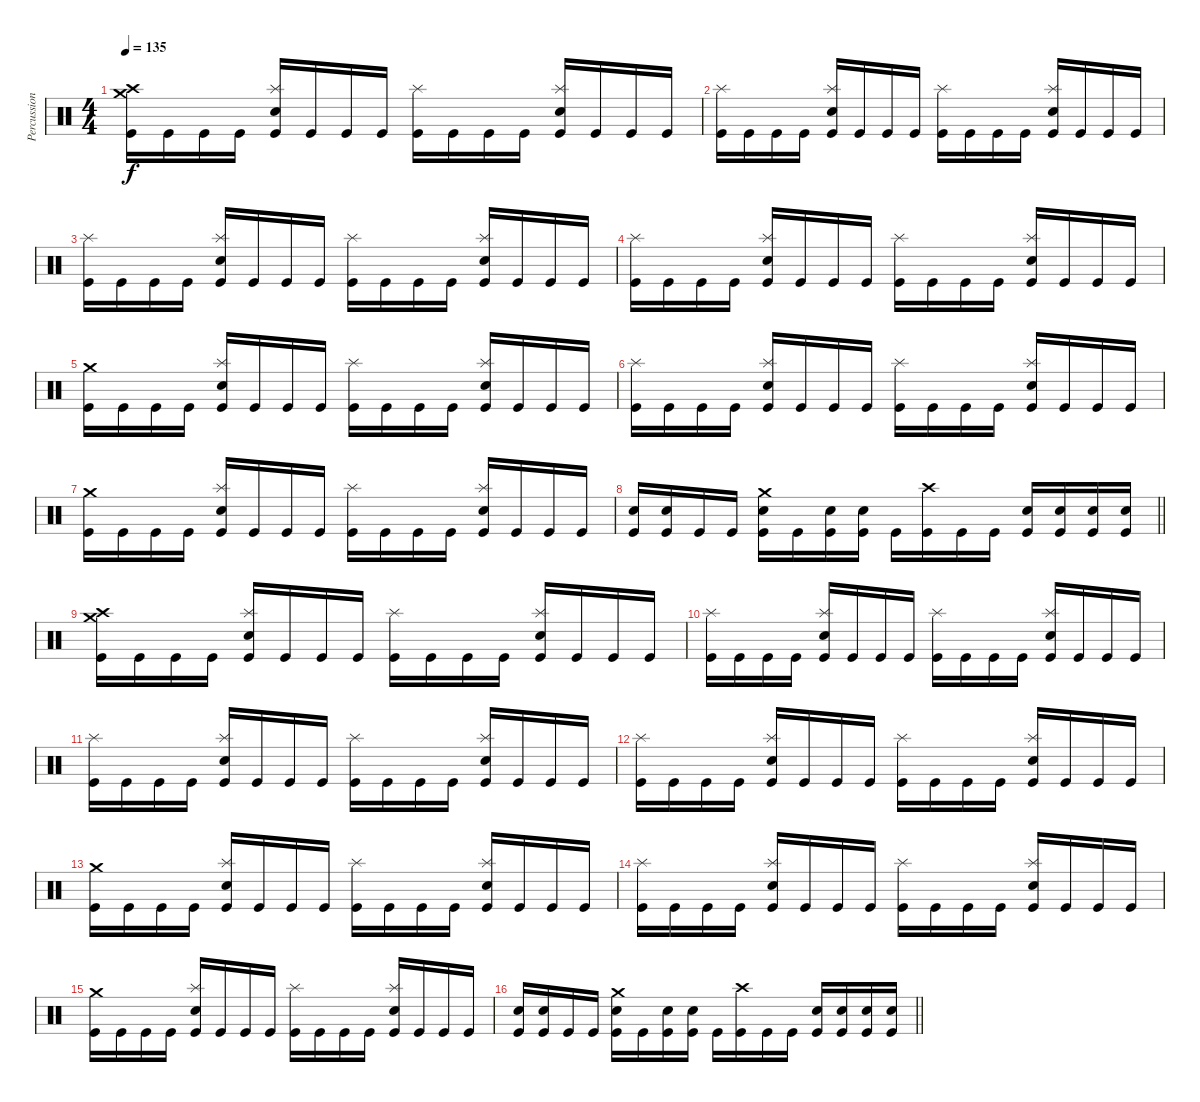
\track ("Percussion" "Percussion") {instrument percussion}
\staff {score}
\articulation defaults
\ts (4 4)
\tempo 135
\clef neutral
\ks c
("Crash medium (hit)" "Crash high (hit)" "Kick (hit)").16{dy f} "Kick (hit)".16 "Kick (hit)".16 "Kick (hit)".16 ("Splash (hit)" "Electric Snare (hit)" "Kick (hit)").16 "Kick (hit)".16 "Kick (hit)".16 "Kick (hit)".16 ("Splash (hit)" "Kick (hit)").16 "Kick (hit)".16 "Kick (hit)".16 "Kick (hit)".16 ("Splash (hit)" "Electric Snare (hit)" "Kick (hit)").16 "Kick (hit)".16 "Kick (hit)".16 "Kick (hit)".16 |
("Splash (hit)" "Kick (hit)").16 "Kick (hit)".16 "Kick (hit)".16 "Kick (hit)".16 ("Splash (hit)" "Electric Snare (hit)" "Kick (hit)").16 "Kick (hit)".16 "Kick (hit)".16 "Kick (hit)".16 ("Splash (hit)" "Kick (hit)").16 "Kick (hit)".16 "Kick (hit)".16 "Kick (hit)".16 ("Splash (hit)" "Electric Snare (hit)" "Kick (hit)").16 "Kick (hit)".16 "Kick (hit)".16 "Kick (hit)".16 |
("Splash (hit)" "Kick (hit)").16 "Kick (hit)".16 "Kick (hit)".16 "Kick (hit)".16 ("Splash (hit)" "Electric Snare (hit)" "Kick (hit)").16 "Kick (hit)".16 "Kick (hit)".16 "Kick (hit)".16 ("Splash (hit)" "Kick (hit)").16 "Kick (hit)".16 "Kick (hit)".16 "Kick (hit)".16 ("Splash (hit)" "Electric Snare (hit)" "Kick (hit)").16 "Kick (hit)".16 "Kick (hit)".16 "Kick (hit)".16 |
("Splash (hit)" "Kick (hit)").16 "Kick (hit)".16 "Kick (hit)".16 "Kick (hit)".16 ("Splash (hit)" "Electric Snare (hit)" "Kick (hit)").16 "Kick (hit)".16 "Kick (hit)".16 "Kick (hit)".16 ("Splash (hit)" "Kick (hit)").16 "Kick (hit)".16 "Kick (hit)".16 "Kick (hit)".16 ("Splash (hit)" "Electric Snare (hit)" "Kick (hit)").16 "Kick (hit)".16 "Kick (hit)".16 "Kick (hit)".16 |
("Crash medium (hit)" "Kick (hit)").16 "Kick (hit)".16 "Kick (hit)".16 "Kick (hit)".16 ("Splash (hit)" "Electric Snare (hit)" "Kick (hit)").16 "Kick (hit)".16 "Kick (hit)".16 "Kick (hit)".16 ("Splash (hit)" "Kick (hit)").16 "Kick (hit)".16 "Kick (hit)".16 "Kick (hit)".16 ("Splash (hit)" "Electric Snare (hit)" "Kick (hit)").16 "Kick (hit)".16 "Kick (hit)".16 "Kick (hit)".16 |
("Splash (hit)" "Kick (hit)").16 "Kick (hit)".16 "Kick (hit)".16 "Kick (hit)".16 ("Splash (hit)" "Electric Snare (hit)" "Kick (hit)").16 "Kick (hit)".16 "Kick (hit)".16 "Kick (hit)".16 ("Splash (hit)" "Kick (hit)").16 "Kick (hit)".16 "Kick (hit)".16 "Kick (hit)".16 ("Splash (hit)" "Electric Snare (hit)" "Kick (hit)").16 "Kick (hit)".16 "Kick (hit)".16 "Kick (hit)".16 |
("Crash medium (hit)" "Kick (hit)").16 "Kick (hit)".16 "Kick (hit)".16 "Kick (hit)".16 ("Splash (hit)" "Electric Snare (hit)" "Kick (hit)").16 "Kick (hit)".16 "Kick (hit)".16 "Kick (hit)".16 ("Splash (hit)" "Kick (hit)").16 "Kick (hit)".16 "Kick (hit)".16 "Kick (hit)".16 ("Splash (hit)" "Electric Snare (hit)" "Kick (hit)").16 "Kick (hit)".16 "Kick (hit)".16 "Kick (hit)".16 |
\barLineRight lightlight
("Electric Snare (hit)" "Kick (hit)").16 ("Electric Snare (hit)" "Kick (hit)").16 "Kick (hit)".16 "Kick (hit)".16 ("Crash medium (hit)" "Electric Snare (hit)" "Kick (hit)").16 "Kick (hit)".16 ("Electric Snare (hit)" "Kick (hit)").16 ("Electric Snare (hit)" "Kick (hit)").16 "Kick (hit)".16 ("Crash high (hit)" "Kick (hit)").16 "Kick (hit)".16 "Kick (hit)".16 ("Electric Snare (hit)" "Kick (hit)").16 ("Electric Snare (hit)" "Kick (hit)").16 ("Electric Snare (hit)" "Kick (hit)").16 ("Electric Snare (hit)" "Kick (hit)").16 |
("Crash medium (hit)" "Crash high (hit)" "Kick (hit)").16 "Kick (hit)".16 "Kick (hit)".16 "Kick (hit)".16 ("Splash (hit)" "Electric Snare (hit)" "Kick (hit)").16 "Kick (hit)".16 "Kick (hit)".16 "Kick (hit)".16 ("Splash (hit)" "Kick (hit)").16 "Kick (hit)".16 "Kick (hit)".16 "Kick (hit)".16 ("Splash (hit)" "Electric Snare (hit)" "Kick (hit)").16 "Kick (hit)".16 "Kick (hit)".16 "Kick (hit)".16 |
("Splash (hit)" "Kick (hit)").16 "Kick (hit)".16 "Kick (hit)".16 "Kick (hit)".16 ("Splash (hit)" "Electric Snare (hit)" "Kick (hit)").16 "Kick (hit)".16 "Kick (hit)".16 "Kick (hit)".16 ("Splash (hit)" "Kick (hit)").16 "Kick (hit)".16 "Kick (hit)".16 "Kick (hit)".16 ("Splash (hit)" "Electric Snare (hit)" "Kick (hit)").16 "Kick (hit)".16 "Kick (hit)".16 "Kick (hit)".16 |
("Splash (hit)" "Kick (hit)").16 "Kick (hit)".16 "Kick (hit)".16 "Kick (hit)".16 ("Splash (hit)" "Electric Snare (hit)" "Kick (hit)").16 "Kick (hit)".16 "Kick (hit)".16 "Kick (hit)".16 ("Splash (hit)" "Kick (hit)").16 "Kick (hit)".16 "Kick (hit)".16 "Kick (hit)".16 ("Splash (hit)" "Electric Snare (hit)" "Kick (hit)").16 "Kick (hit)".16 "Kick (hit)".16 "Kick (hit)".16 |
("Splash (hit)" "Kick (hit)").16 "Kick (hit)".16 "Kick (hit)".16 "Kick (hit)".16 ("Splash (hit)" "Electric Snare (hit)" "Kick (hit)").16 "Kick (hit)".16 "Kick (hit)".16 "Kick (hit)".16 ("Splash (hit)" "Kick (hit)").16 "Kick (hit)".16 "Kick (hit)".16 "Kick (hit)".16 ("Splash (hit)" "Electric Snare (hit)" "Kick (hit)").16 "Kick (hit)".16 "Kick (hit)".16 "Kick (hit)".16 |
("Crash medium (hit)" "Kick (hit)").16 "Kick (hit)".16 "Kick (hit)".16 "Kick (hit)".16 ("Splash (hit)" "Electric Snare (hit)" "Kick (hit)").16 "Kick (hit)".16 "Kick (hit)".16 "Kick (hit)".16 ("Splash (hit)" "Kick (hit)").16 "Kick (hit)".16 "Kick (hit)".16 "Kick (hit)".16 ("Splash (hit)" "Electric Snare (hit)" "Kick (hit)").16 "Kick (hit)".16 "Kick (hit)".16 "Kick (hit)".16 |
("Splash (hit)" "Kick (hit)").16 "Kick (hit)".16 "Kick (hit)".16 "Kick (hit)".16 ("Splash (hit)" "Electric Snare (hit)" "Kick (hit)").16 "Kick (hit)".16 "Kick (hit)".16 "Kick (hit)".16 ("Splash (hit)" "Kick (hit)").16 "Kick (hit)".16 "Kick (hit)".16 "Kick (hit)".16 ("Splash (hit)" "Electric Snare (hit)" "Kick (hit)").16 "Kick (hit)".16 "Kick (hit)".16 "Kick (hit)".16 |
("Crash medium (hit)" "Kick (hit)").16 "Kick (hit)".16 "Kick (hit)".16 "Kick (hit)".16 ("Splash (hit)" "Electric Snare (hit)" "Kick (hit)").16 "Kick (hit)".16 "Kick (hit)".16 "Kick (hit)".16 ("Splash (hit)" "Kick (hit)").16 "Kick (hit)".16 "Kick (hit)".16 "Kick (hit)".16 ("Splash (hit)" "Electric Snare (hit)" "Kick (hit)").16 "Kick (hit)".16 "Kick (hit)".16 "Kick (hit)".16 |
\barLineRight lightlight
("Electric Snare (hit)" "Kick (hit)").16 ("Electric Snare (hit)" "Kick (hit)").16 "Kick (hit)".16 "Kick (hit)".16 ("Crash medium (hit)" "Electric Snare (hit)" "Kick (hit)").16 "Kick (hit)".16 ("Electric Snare (hit)" "Kick (hit)").16 ("Electric Snare (hit)" "Kick (hit)").16 "Kick (hit)".16 ("Crash high (hit)" "Kick (hit)").16 "Kick (hit)".16 "Kick (hit)".16 ("Electric Snare (hit)" "Kick (hit)").16 ("Electric Snare (hit)" "Kick (hit)").16 ("Electric Snare (hit)" "Kick (hit)").16 ("Electric Snare (hit)" "Kick (hit)").16
